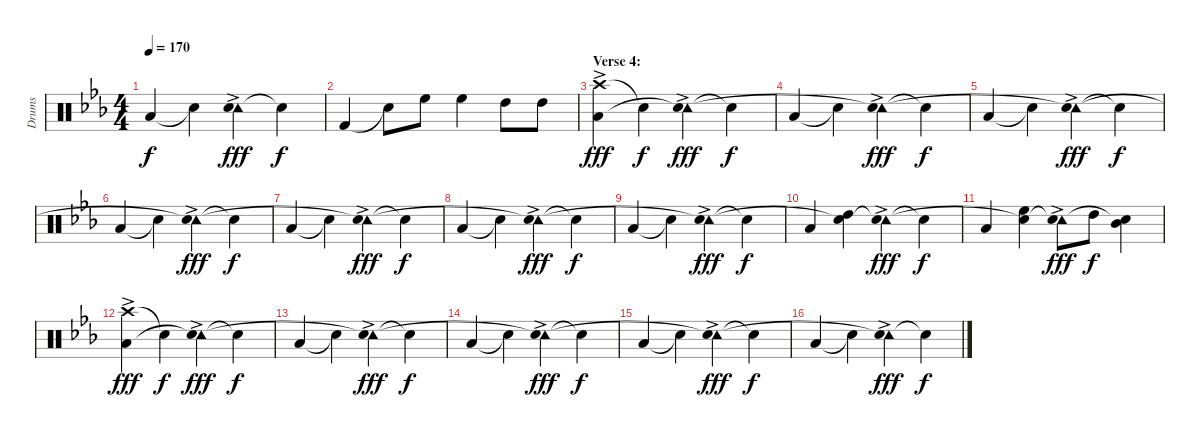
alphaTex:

\track ("Drums" "Drums") {instrument percussion}
\staff {score}
\articulation defaults
\ts (4 4)
\tempo 170
\clef neutral
\ks cminor "Low Floor Tom (hit)".4{dy f} "Snare (hit)"{t}.4
("Tambourine (hit)"{ac} "Snare (hit)"{t}).4{dy fff} "Snare (hit)"{t}.4{dy f} |
"Kick (hit) 2".4 "Snare (hit)"{t}.8 "High Floor Tom (hit)".8 "High Floor Tom (hit)".4 "High Tom (hit)".8 "High Tom (hit)".8 |
\section ("" "Verse 4:")
("Crash high (hit)"{ac} "Low Floor Tom (hit)").4{dy fff} "Snare (hit)"{t}.4{dy f} ("Tambourine (hit)"{ac} "Snare (hit)"{t}).4{dy fff} "Snare (hit)"{t}.4{dy f} |
"Low Floor Tom (hit)".4 "Snare (hit)"{t}.4 ("Tambourine (hit)"{ac} "Snare (hit)"{t}).4{dy fff} "Snare (hit)"{t}.4{dy f} |
"Low Floor Tom (hit)".4 "Snare (hit)"{t}.4 ("Tambourine (hit)"{ac} "Snare (hit)"{t}).4{dy fff} "Snare (hit)"{t}.4{dy f} |
"Low Floor Tom (hit)".4 "Snare (hit)"{t}.4 ("Tambourine (hit)"{ac} "Snare (hit)"{t}).4{dy fff} "Snare (hit)"{t}.4{dy f} |
"Low Floor Tom (hit)".4 "Snare (hit)"{t}.4 ("Tambourine (hit)"{ac} "Snare (hit)"{t}).4{dy fff} "Snare (hit)"{t}.4{dy f} |
"Low Floor Tom (hit)".4 "Snare (hit)"{t}.4 ("Tambourine (hit)"{ac} "Snare (hit)"{t}).4{dy fff} "Snare (hit)"{t}.4{dy f} |
"Low Floor Tom (hit)".4 "Snare (hit)"{t}.4 ("Tambourine (hit)"{ac} "Snare (hit)"{t}).4{dy fff} "Snare (hit)"{t}.4{dy f} |
"Low Floor Tom (hit)".4 ("High Tom (hit)" "Snare (hit)"{t}).4 ("Tambourine (hit)"{ac} "Snare (hit)"{t}).4{dy fff} "Snare (hit)"{t}.4{dy f} |
"Low Floor Tom (hit)".4 ("High Floor Tom (hit)" "Snare (hit)"{t}).4 ("Tambourine (hit)"{ac} "Snare (hit)"{t}).8{dy fff} "High Tom (hit)".8{dy f} ("Mid Tom (hit)" "Snare (hit)"{t}).4 |
("Crash high (hit)"{ac} "Low Floor Tom (hit)").4{dy fff} "Snare (hit)"{t}.4{dy f} ("Tambourine (hit)"{ac} "Snare (hit)"{t}).4{dy fff} "Snare (hit)"{t}.4{dy f} |
"Low Floor Tom (hit)".4 "Snare (hit)"{t}.4 ("Tambourine (hit)"{ac} "Snare (hit)"{t}).4{dy fff} "Snare (hit)"{t}.4{dy f} |
"Low Floor Tom (hit)".4 "Snare (hit)"{t}.4 ("Tambourine (hit)"{ac} "Snare (hit)"{t}).4{dy fff} "Snare (hit)"{t}.4{dy f} |
"Low Floor Tom (hit)".4 "Snare (hit)"{t}.4 ("Tambourine (hit)"{ac} "Snare (hit)"{t}).4{dy fff} "Snare (hit)"{t}.4{dy f} |
"Low Floor Tom (hit)".4 "Snare (hit)"{t}.4 ("Tambourine (hit)"{ac} "Snare (hit)"{t}).4{dy fff} "Snare (hit)"{t}.4{dy f}
